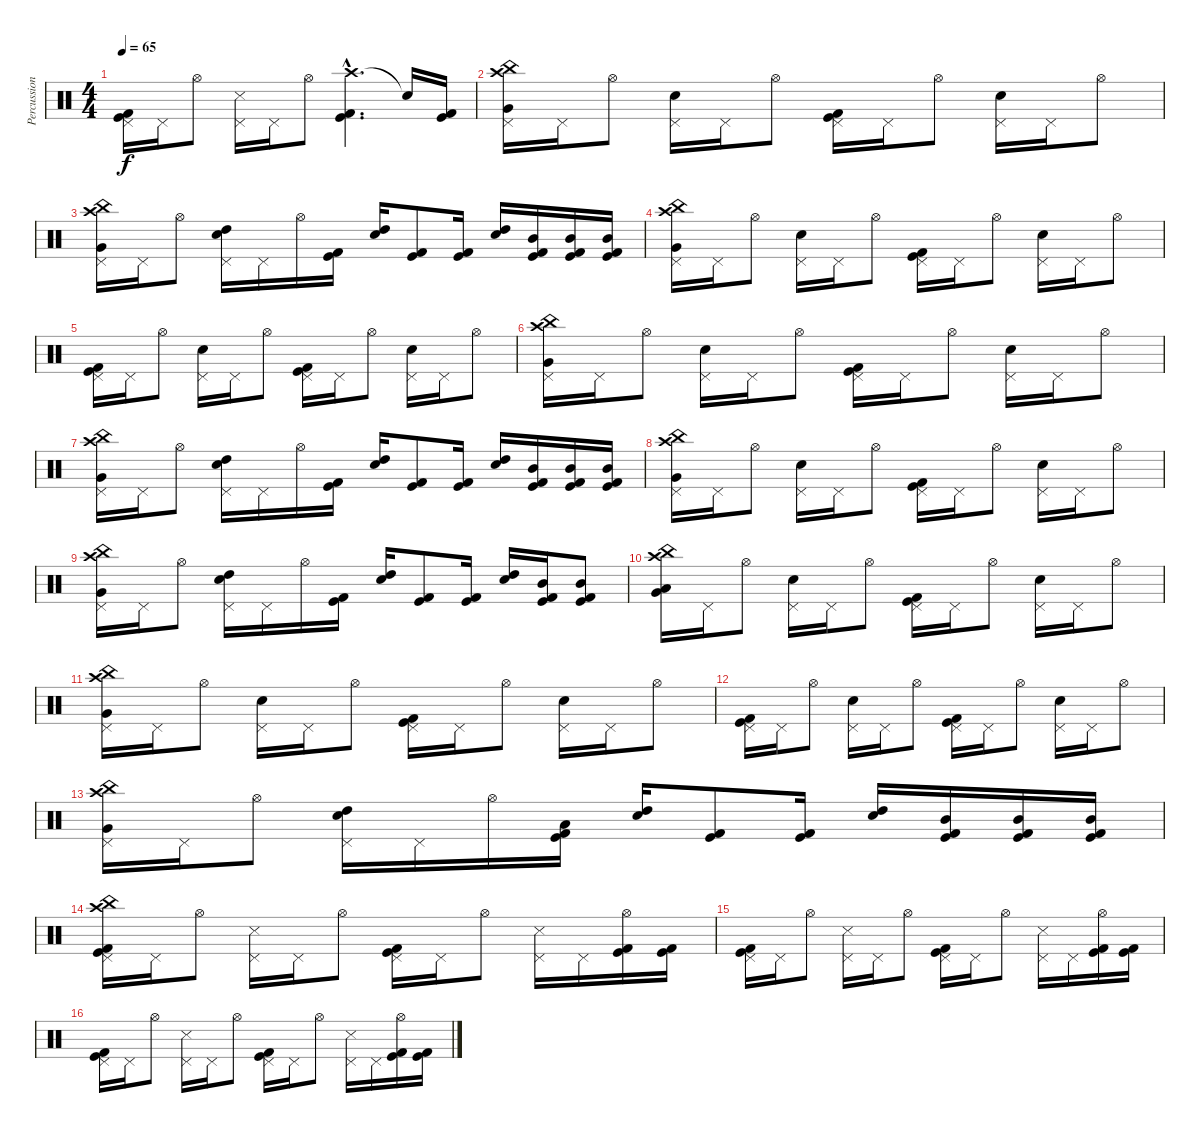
\track ("Percussion" "Percussion") {instrument percussion}
\staff {score}
\articulation defaults
\ts (4 4)
\tempo 65
\clef neutral
\ks c
("Pedal Hi-Hat (hit)" "Kick (hit)" "Kick (hit) 2").16{dy f} "Pedal Hi-Hat (hit)".16 "Hi-Hat (open)".8 ("Pedal Hi-Hat (hit)" "Snare (side stick) 3").16 "Pedal Hi-Hat (hit)".16 "Hi-Hat (open)".8 ("Crash high (hit)"{hac} "Kick (hit) 2"{hac} "Kick (hit)"{hac}).4{d} "Snare (hit)"{t}.16 ("Kick (hit)" "Kick (hit) 2").16 |
("China (hit)" "Pedal Hi-Hat (hit)" "Very Low Tom (hit)" "Crash high (hit)").16 "Pedal Hi-Hat (hit)".16 "Hi-Hat (open)".8 ("Pedal Hi-Hat (hit)" "Electric Snare (hit)").16 "Pedal Hi-Hat (hit)".16 "Hi-Hat (open)".8 ("Pedal Hi-Hat (hit)" "Kick (hit)" "Kick (hit) 2").16 "Pedal Hi-Hat (hit)".16 "Hi-Hat (open)".8 ("Pedal Hi-Hat (hit)" "Electric Snare (hit)").16 "Pedal Hi-Hat (hit)".16 "Hi-Hat (open)".8 |
("China (hit)" "Pedal Hi-Hat (hit)" "Very Low Tom (hit)" "Crash high (hit)").16 "Pedal Hi-Hat (hit)".16 "Hi-Hat (open)".8 ("High Tom (hit)" "Pedal Hi-Hat (hit)" "Electric Snare (hit)").16 "Pedal Hi-Hat (hit)".16 "Hi-Hat (open)".16 ("Kick (hit)" "Kick (hit) 2").16 ("High Tom (hit)" "Snare (hit) 2").16 ("Kick (hit) 2" "Kick (hit)").8 ("Kick (hit)" "Kick (hit) 2").16 ("High Tom (hit)" "Snare (hit) 2").16 ("Mid Tom (hit)" "Kick (hit)" "Kick (hit) 2").16 ("Mid Tom (hit)" "Kick (hit) 2" "Kick (hit)").16 ("Mid Tom (hit)" "Kick (hit) 2" "Kick (hit)").16 |
("China (hit)" "Pedal Hi-Hat (hit)" "Very Low Tom (hit)" "Crash high (hit)").16 "Pedal Hi-Hat (hit)".16 "Hi-Hat (open)".8 ("Pedal Hi-Hat (hit)" "Electric Snare (hit)").16 "Pedal Hi-Hat (hit)".16 "Hi-Hat (open)".8 ("Pedal Hi-Hat (hit)" "Kick (hit)" "Kick (hit) 2").16 "Pedal Hi-Hat (hit)".16 "Hi-Hat (open)".8 ("Pedal Hi-Hat (hit)" "Electric Snare (hit)").16 "Pedal Hi-Hat (hit)".16 "Hi-Hat (open)".8 |
("Pedal Hi-Hat (hit)" "Kick (hit)" "Kick (hit) 2").16 "Pedal Hi-Hat (hit)".16 "Hi-Hat (open)".8 ("Pedal Hi-Hat (hit)" "Electric Snare (hit)").16 "Pedal Hi-Hat (hit)".16 "Hi-Hat (open)".8 ("Pedal Hi-Hat (hit)" "Kick (hit)" "Kick (hit) 2").16 "Pedal Hi-Hat (hit)".16 "Hi-Hat (open)".8 ("Pedal Hi-Hat (hit)" "Electric Snare (hit)").16 "Pedal Hi-Hat (hit)".16 "Hi-Hat (open)".8 |
("China (hit)" "Pedal Hi-Hat (hit)" "Very Low Tom (hit)" "Crash high (hit)").16 "Pedal Hi-Hat (hit)".16 "Hi-Hat (open)".8 ("Pedal Hi-Hat (hit)" "Electric Snare (hit)").16 "Pedal Hi-Hat (hit)".16 "Hi-Hat (open)".8 ("Pedal Hi-Hat (hit)" "Kick (hit)" "Kick (hit) 2").16 "Pedal Hi-Hat (hit)".16 "Hi-Hat (open)".8 ("Pedal Hi-Hat (hit)" "Electric Snare (hit)").16 "Pedal Hi-Hat (hit)".16 "Hi-Hat (open)".8 |
("China (hit)" "Pedal Hi-Hat (hit)" "Very Low Tom (hit)" "Crash high (hit)").16 "Pedal Hi-Hat (hit)".16 "Hi-Hat (open)".8 ("High Tom (hit)" "Pedal Hi-Hat (hit)" "Electric Snare (hit)").16 "Pedal Hi-Hat (hit)".16 "Hi-Hat (open)".16 ("Kick (hit)" "Kick (hit) 2").16 ("High Tom (hit)" "Snare (hit) 2").16 ("Kick (hit) 2" "Kick (hit)").8 ("Kick (hit)" "Kick (hit) 2").16 ("High Tom (hit)" "Snare (hit) 2").16 ("Mid Tom (hit)" "Kick (hit)" "Kick (hit) 2").16 ("Mid Tom (hit)" "Kick (hit) 2" "Kick (hit)").16 ("Mid Tom (hit)" "Kick (hit) 2" "Kick (hit)").16 |
("China (hit)" "Pedal Hi-Hat (hit)" "Very Low Tom (hit)" "Crash high (hit)").16 "Pedal Hi-Hat (hit)".16 "Hi-Hat (open)".8 ("Pedal Hi-Hat (hit)" "Electric Snare (hit)").16 "Pedal Hi-Hat (hit)".16 "Hi-Hat (open)".8 ("Pedal Hi-Hat (hit)" "Kick (hit)" "Kick (hit) 2").16 "Pedal Hi-Hat (hit)".16 "Hi-Hat (open)".8 ("Pedal Hi-Hat (hit)" "Electric Snare (hit)").16 "Pedal Hi-Hat (hit)".16 "Hi-Hat (open)".8 |
("China (hit)" "Pedal Hi-Hat (hit)" "Very Low Tom (hit)" "Crash high (hit)").16 "Pedal Hi-Hat (hit)".16 "Hi-Hat (open)".8 ("High Tom (hit)" "Pedal Hi-Hat (hit)" "Electric Snare (hit)").16 "Pedal Hi-Hat (hit)".16 "Hi-Hat (open)".16 ("Kick (hit)" "Kick (hit) 2").16 ("High Tom (hit)" "Snare (hit) 2").16 ("Kick (hit) 2" "Kick (hit)").8 ("Kick (hit)" "Kick (hit) 2").16 ("High Tom (hit)" "Snare (hit) 2").16 ("Mid Tom (hit)" "Kick (hit)" "Kick (hit) 2").16 ("Mid Tom (hit)" "Kick (hit) 2" "Kick (hit)").8 |
("China (hit)" "Very Low Tom (hit)" "Low Tom (hit)" "Crash high (hit)").16 "Pedal Hi-Hat (hit)".16 "Hi-Hat (open)".8 ("Pedal Hi-Hat (hit)" "Electric Snare (hit)").16 "Pedal Hi-Hat (hit)".16 "Hi-Hat (open)".8 ("Pedal Hi-Hat (hit)" "Kick (hit)" "Kick (hit) 2").16 "Pedal Hi-Hat (hit)".16 "Hi-Hat (open)".8 ("Pedal Hi-Hat (hit)" "Electric Snare (hit)").16 "Pedal Hi-Hat (hit)".16 "Hi-Hat (open)".8 |
("China (hit)" "Pedal Hi-Hat (hit)" "Very Low Tom (hit)" "Crash high (hit)").16 "Pedal Hi-Hat (hit)".16 "Hi-Hat (open)".8 ("Pedal Hi-Hat (hit)" "Electric Snare (hit)").16 "Pedal Hi-Hat (hit)".16 "Hi-Hat (open)".8 ("Pedal Hi-Hat (hit)" "Kick (hit)" "Kick (hit) 2").16 "Pedal Hi-Hat (hit)".16 "Hi-Hat (open)".8 ("Pedal Hi-Hat (hit)" "Electric Snare (hit)").16 "Pedal Hi-Hat (hit)".16 "Hi-Hat (open)".8 |
("Pedal Hi-Hat (hit)" "Kick (hit)" "Kick (hit) 2").16 "Pedal Hi-Hat (hit)".16 "Hi-Hat (open)".8 ("Pedal Hi-Hat (hit)" "Electric Snare (hit)").16 "Pedal Hi-Hat (hit)".16 "Hi-Hat (open)".8 ("Pedal Hi-Hat (hit)" "Kick (hit)" "Kick (hit) 2").16 "Pedal Hi-Hat (hit)".16 "Hi-Hat (open)".8 ("Pedal Hi-Hat (hit)" "Electric Snare (hit)").16 "Pedal Hi-Hat (hit)".16 "Hi-Hat (open)".8 |
("China (hit)" "Pedal Hi-Hat (hit)" "Very Low Tom (hit)" "Crash high (hit)").16 "Pedal Hi-Hat (hit)".16 "Hi-Hat (open)".8 ("High Tom (hit)" "Pedal Hi-Hat (hit)" "Electric Snare (hit)").16 "Pedal Hi-Hat (hit)".16 "Hi-Hat (open)".16 ("Low Tom (hit)" "Kick (hit)" "Kick (hit) 2").16 ("High Tom (hit)" "Snare (hit) 2").16 ("Kick (hit) 2" "Kick (hit)").8 ("Kick (hit)" "Kick (hit) 2").16 ("High Tom (hit)" "Snare (hit) 2").16 ("Mid Tom (hit)" "Kick (hit)" "Kick (hit) 2").16 ("Mid Tom (hit)" "Kick (hit) 2" "Kick (hit)").16 ("Mid Tom (hit)" "Kick (hit)" "Kick (hit) 2").16 |
("Crash high (hit)" "Pedal Hi-Hat (hit)" "Kick (hit)" "Kick (hit) 2" "China (hit)").16 "Pedal Hi-Hat (hit)".16 "Hi-Hat (open)".8 ("Pedal Hi-Hat (hit)" "Snare (side stick) 3").16 "Pedal Hi-Hat (hit)".16 "Hi-Hat (open)".8 ("Pedal Hi-Hat (hit)" "Kick (hit) 2" "Kick (hit)").16 "Pedal Hi-Hat (hit)".16 "Hi-Hat (open)".8 ("Pedal Hi-Hat (hit)" "Snare (side stick) 3").16 "Pedal Hi-Hat (hit)".16 ("Hi-Hat (open)" "Kick (hit)" "Kick (hit) 2").16 ("Kick (hit)" "Kick (hit) 2").16 |
("Pedal Hi-Hat (hit)" "Kick (hit)" "Kick (hit) 2").16 "Pedal Hi-Hat (hit)".16 "Hi-Hat (open)".8 ("Pedal Hi-Hat (hit)" "Snare (side stick) 3").16 "Pedal Hi-Hat (hit)".16 "Hi-Hat (open)".8 ("Pedal Hi-Hat (hit)" "Kick (hit) 2" "Kick (hit)").16 "Pedal Hi-Hat (hit)".16 "Hi-Hat (open)".8 ("Pedal Hi-Hat (hit)" "Snare (side stick) 3").16 "Pedal Hi-Hat (hit)".16 ("Hi-Hat (open)" "Kick (hit)" "Kick (hit) 2").16 ("Kick (hit)" "Kick (hit) 2").16 |
("Pedal Hi-Hat (hit)" "Kick (hit)" "Kick (hit) 2").16 "Pedal Hi-Hat (hit)".16 "Hi-Hat (open)".8 ("Pedal Hi-Hat (hit)" "Snare (side stick) 3").16 "Pedal Hi-Hat (hit)".16 "Hi-Hat (open)".8 ("Pedal Hi-Hat (hit)" "Kick (hit) 2" "Kick (hit)").16 "Pedal Hi-Hat (hit)".16 "Hi-Hat (open)".8 ("Pedal Hi-Hat (hit)" "Snare (side stick) 3").16 "Pedal Hi-Hat (hit)".16 ("Hi-Hat (open)" "Kick (hit)" "Kick (hit) 2").16 ("Kick (hit)" "Kick (hit) 2").16
